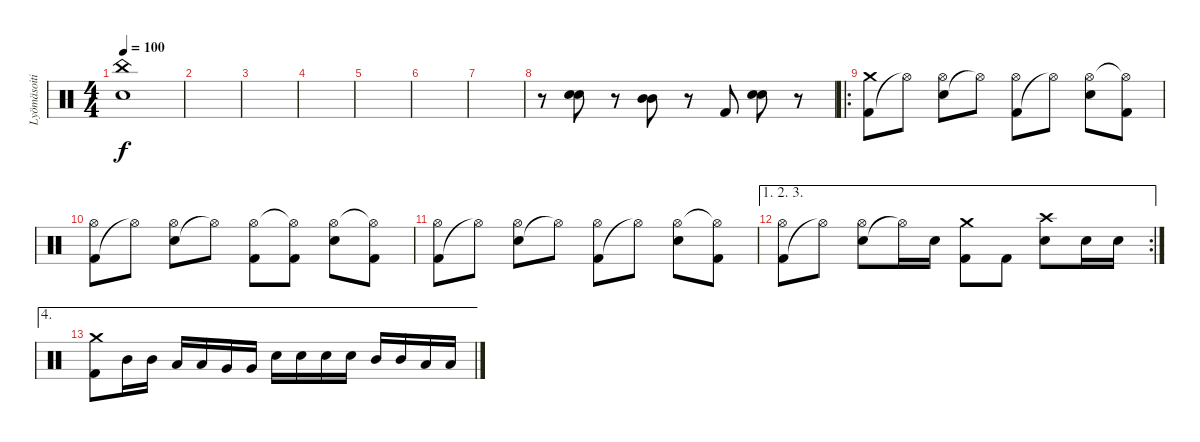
\track ("Lyömäsoitin" "Lyömäsoiti") {instrument percussion}
\staff {score}
\articulation defaults
\ts (4 4)
\tempo 100
\clef neutral
\ks c
("Electric Snare (hit)" "China (hit)").1{dy f} |
|
|
|
|
|
|
r.8 ("Electric Snare (hit)" "Electric Snare (hit)").8 r.8 ("Mid Tom (hit)" "Mid Tom (hit)").8 r.8 "Kick (hit) 2".8 ("Electric Snare (hit)" "Electric Snare (hit)").8 r.8 |
\ro
("Kick (hit) 2" "Crash medium (hit)").8 "Hi-Hat (open)"{t}.8 ("Electric Snare (hit)" "Hi-Hat (open)").8 "Hi-Hat (open)"{t}.8 ("Kick (hit) 2" "Hi-Hat (open)").8 "Hi-Hat (open)"{t}.8 ("Electric Snare (hit)" "Hi-Hat (open)").8 ("Kick (hit) 2" "Hi-Hat (open)"{t}).8 |
("Kick (hit) 2" "Hi-Hat (open)").8 "Hi-Hat (open)"{t}.8 ("Electric Snare (hit)" "Hi-Hat (open)").8 "Hi-Hat (open)"{t}.8 ("Kick (hit) 2" "Hi-Hat (open)").8 ("Kick (hit) 2" "Hi-Hat (open)"{t}).8 ("Electric Snare (hit)" "Hi-Hat (open)").8 ("Kick (hit) 2" "Hi-Hat (open)"{t}).8 |
("Kick (hit) 2" "Hi-Hat (open)").8 "Hi-Hat (open)"{t}.8 ("Electric Snare (hit)" "Hi-Hat (open)").8 "Hi-Hat (open)"{t}.8 ("Kick (hit) 2" "Hi-Hat (open)").8 "Hi-Hat (open)"{t}.8 ("Electric Snare (hit)" "Hi-Hat (open)").8 ("Kick (hit) 2" "Hi-Hat (open)"{t}).8 |
\ae (1 2 3)
\rc 2
("Kick (hit) 2" "Hi-Hat (open)").8 "Hi-Hat (open)"{t}.8 ("Electric Snare (hit)" "Hi-Hat (open)").8 "Hi-Hat (open)"{t}.16 "Electric Snare (hit)".16 ("Kick (hit) 2" "Crash medium (hit)").8 "Kick (hit) 2".8 ("Electric Snare (hit)" "Crash high (hit)").8 "Electric Snare (hit)".16 "Electric Snare (hit)".16 |
\ae 4
("Crash medium (hit)" "Kick (hit) 2").8 "Mid Tom (hit)".16 "Mid Tom (hit)".16 "Low Tom (hit)".16 "Low Tom (hit)".16 "Very Low Tom (hit)".16 "Very Low Tom (hit)".16 "Electric Snare (hit)".16 "Electric Snare (hit)".16 "Electric Snare (hit)".16 "Electric Snare (hit)".16 "Mid Tom (hit)".16 "Mid Tom (hit)".16 "Low Tom (hit)".16 "Low Tom (hit)".16
